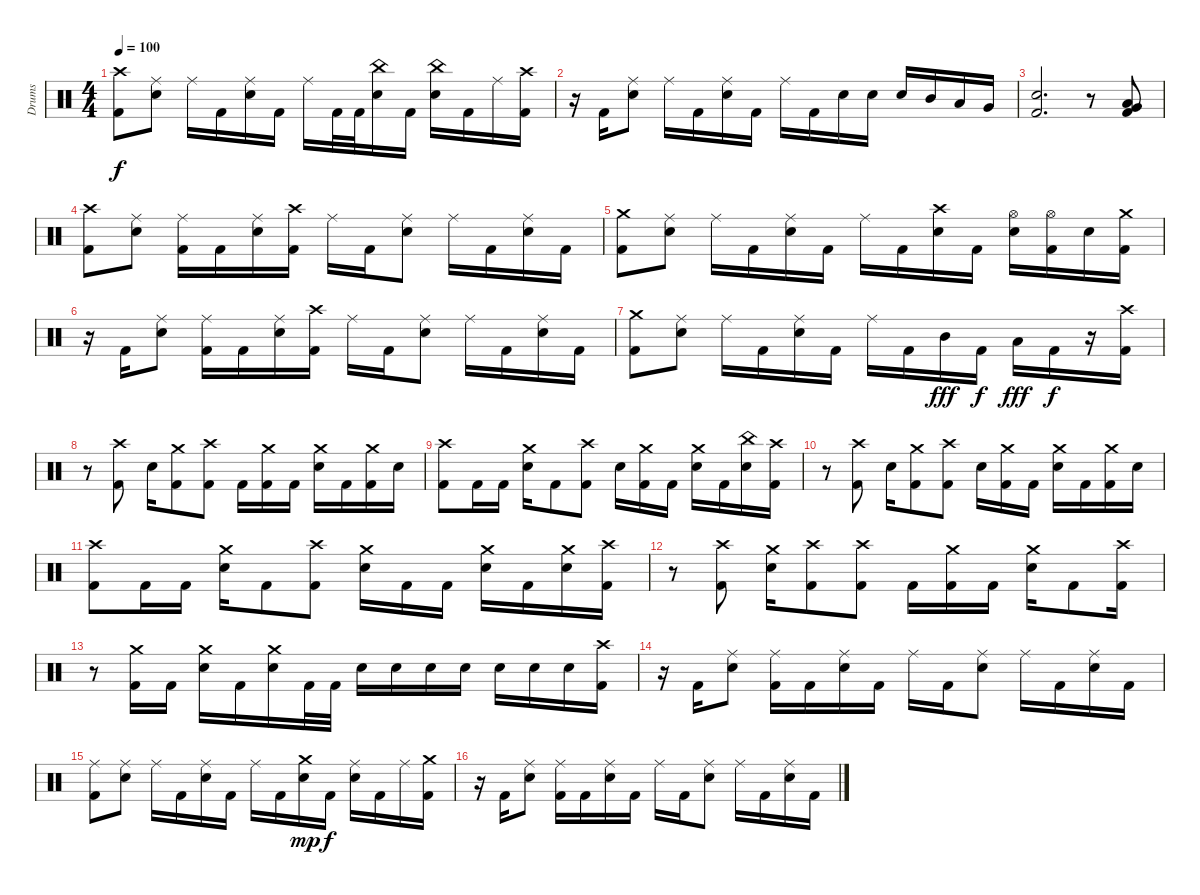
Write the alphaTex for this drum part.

\track ("Drums" "Drums") {instrument percussion}
\staff {score}
\articulation defaults
\ts (4 4)
\tempo 100
\clef neutral
\ks c
("Crash high (hit)" "Kick (hit) 2").8{dy f} ("Ride (middle)" "Electric Snare (hit)").8 "Ride (middle)".16 "Kick (hit) 2".16 ("Ride (middle)" "Electric Snare (hit)").16 "Kick (hit) 2".16 "Ride (middle)".16 "Kick (hit) 2".32 "Kick (hit) 2".32 ("China (hit)" "Electric Snare (hit)").16 "Kick (hit) 2".16 ("China (hit)" "Electric Snare (hit)").16 "Kick (hit) 2".16 "Ride (middle)".16 ("Crash high (hit)" "Kick (hit) 2").16 |
r.16 "Kick (hit) 2".16 ("Ride (middle)" "Electric Snare (hit)").8 "Ride (middle)".16 "Kick (hit) 2".16 ("Ride (middle)" "Electric Snare (hit)").16 "Kick (hit) 2".16 "Ride (middle)".16 "Kick (hit) 2".16 "Electric Snare (hit)".16 "Electric Snare (hit)".16 "Electric Snare (hit)".16 "Mid Tom (hit)".16 "Low Tom (hit)".16 "Very Low Tom (hit)".16 |
("Electric Snare (hit)" "Kick (hit) 2").2{d} r.8 ("Low Tom (hit)" "Very Low Tom (hit)" "Kick (hit) 2").8 |
("Crash high (hit)" "Kick (hit) 2").8 ("Ride (middle)" "Electric Snare (hit)").8 ("Ride (middle)" "Kick (hit) 2").16 "Kick (hit) 2".16 ("Ride (middle)" "Electric Snare (hit)").16 ("Crash high (hit)" "Kick (hit) 2").16 "Ride (middle)".16 "Kick (hit) 2".16 ("Ride (middle)" "Electric Snare (hit)").8 "Ride (middle)".16 "Kick (hit) 2".16 ("Ride (middle)" "Electric Snare (hit)").16 "Kick (hit) 2".16 |
("Crash medium (hit)" "Kick (hit) 2").8 ("Ride (middle)" "Electric Snare (hit)").8 "Ride (middle)".16 "Kick (hit) 2".16 ("Ride (middle)" "Electric Snare (hit)").16 "Kick (hit) 2".16 "Ride (middle)".16 "Kick (hit) 2".16 ("Crash high (hit)" "Electric Snare (hit)").16 "Kick (hit) 2".16 ("Hi-Hat (open)" "Electric Snare (hit)").16 ("Hi-Hat (open)" "Kick (hit) 2").16 "Electric Snare (hit)".16 ("Crash medium (hit)" "Kick (hit) 2").16 |
r.16 "Kick (hit) 2".16 ("Ride (middle)" "Electric Snare (hit)").8 ("Ride (middle)" "Kick (hit) 2").16 "Kick (hit) 2".16 ("Ride (middle)" "Electric Snare (hit)").16 ("Crash high (hit)" "Kick (hit) 2").16 "Ride (middle)".16 "Kick (hit) 2".16 ("Ride (middle)" "Electric Snare (hit)").8 "Ride (middle)".16 "Kick (hit) 2".16 ("Ride (middle)" "Electric Snare (hit)").16 "Kick (hit) 2".16 |
("Crash medium (hit)" "Kick (hit) 2").8 ("Ride (middle)" "Electric Snare (hit)").8 "Ride (middle)".16 "Kick (hit) 2".16 ("Ride (middle)" "Electric Snare (hit)").16 "Kick (hit) 2".16 "Ride (middle)".16 "Kick (hit) 2".16 "Mid Tom (hit)".16{dy fff} "Kick (hit) 2".16{dy f} "Low Tom (hit)".16{dy fff} "Kick (hit) 2".16{dy f} r.16 ("Crash high (hit)" "Kick (hit) 2").16 |
r.8 ("Crash high (hit)" "Kick (hit) 2").8 "Electric Snare (hit)".16 ("Crash medium (hit)" "Kick (hit) 2").8 ("Crash high (hit)" "Kick (hit) 2").8 "Kick (hit) 2".16 ("Crash medium (hit)" "Kick (hit) 2").16 "Kick (hit) 2".16 ("Crash medium (hit)" "Electric Snare (hit)").16 "Kick (hit) 2".16 ("Crash medium (hit)" "Kick (hit) 2").16 "Electric Snare (hit)".16 |
("Crash high (hit)" "Kick (hit) 2").8 "Kick (hit) 2".16 "Kick (hit) 2".16 ("Crash medium (hit)" "Electric Snare (hit)").16 "Kick (hit) 2".8 ("Crash high (hit)" "Kick (hit) 2").8 "Electric Snare (hit)".16 ("Crash medium (hit)" "Kick (hit) 2").16 "Kick (hit) 2".16 ("Crash medium (hit)" "Electric Snare (hit)").16 "Kick (hit) 2".16 ("China (hit)" "Electric Snare (hit)").16 ("Crash high (hit)" "Kick (hit) 2").16 |
r.8 ("Crash high (hit)" "Kick (hit) 2").8 "Electric Snare (hit)".16 ("Crash medium (hit)" "Kick (hit) 2").8 ("Crash high (hit)" "Kick (hit) 2").8 "Electric Snare (hit)".16 ("Crash medium (hit)" "Kick (hit) 2").16 "Kick (hit) 2".16 ("Crash medium (hit)" "Electric Snare (hit)").16 "Kick (hit) 2".16 ("Crash medium (hit)" "Kick (hit) 2").16 "Electric Snare (hit)".16 |
("Crash high (hit)" "Kick (hit) 2").8 "Kick (hit) 2".16 "Kick (hit) 2".16 ("Crash medium (hit)" "Electric Snare (hit)").16 "Kick (hit) 2".8 ("Crash high (hit)" "Kick (hit) 2").8 ("Crash medium (hit)" "Electric Snare (hit)").16 "Kick (hit) 2".16 "Kick (hit) 2".16 ("Crash medium (hit)" "Electric Snare (hit)").16 "Kick (hit) 2".16 ("Crash medium (hit)" "Electric Snare (hit)").16 ("Crash high (hit)" "Kick (hit) 2").16 |
r.8 ("Crash high (hit)" "Kick (hit) 2").8 ("Crash medium (hit)" "Electric Snare (hit)").16 ("Crash high (hit)" "Kick (hit) 2").8 ("Crash high (hit)" "Kick (hit) 2").8 "Kick (hit) 2".16 ("Crash medium (hit)" "Kick (hit) 2").16 "Kick (hit) 2".16 ("Crash medium (hit)" "Electric Snare (hit)").16 "Kick (hit) 2".8 ("Crash high (hit)" "Kick (hit) 2").16 |
r.8 ("Crash medium (hit)" "Kick (hit) 2").16 "Kick (hit) 2".16 ("Crash medium (hit)" "Electric Snare (hit)").16 "Kick (hit) 2".16 ("Crash medium (hit)" "Electric Snare (hit)").16 "Kick (hit) 2".32 "Kick (hit) 2".32 "Electric Snare (hit)".16 "Electric Snare (hit)".16 "Electric Snare (hit)".16 "Electric Snare (hit)".16 "Electric Snare (hit)".16 "Electric Snare (hit)".16 "Electric Snare (hit)".16 ("Crash high (hit)" "Kick (hit) 2").16 |
r.16 "Kick (hit) 2".16 ("Ride (middle)" "Electric Snare (hit)").8 ("Ride (middle)" "Kick (hit) 2").16 "Kick (hit) 2".16 ("Ride (middle)" "Electric Snare (hit)").16 "Kick (hit) 2".16 "Ride (middle)".16 "Kick (hit) 2".16 ("Ride (middle)" "Electric Snare (hit)").8 "Ride (middle)".16 "Kick (hit) 2".16 ("Ride (middle)" "Electric Snare (hit)").16 "Kick (hit) 2".16 |
("Ride (middle)" "Kick (hit) 2").8 ("Ride (middle)" "Electric Snare (hit)").8 "Ride (middle)".16 "Kick (hit) 2".16 ("Ride (middle)" "Electric Snare (hit)").16 "Kick (hit) 2".16 "Ride (middle)".16 "Kick (hit) 2".16 ("Crash medium (hit)" "Electric Snare (hit)").16{dy mp} "Kick (hit) 2".16{dy f} ("Ride (middle)" "Electric Snare (hit)").16 "Kick (hit) 2".16 "Ride (middle)".16 ("Crash medium (hit)" "Kick (hit) 2").16 |
r.16 "Kick (hit) 2".16 ("Ride (middle)" "Electric Snare (hit)").8 ("Ride (middle)" "Kick (hit) 2").16 "Kick (hit) 2".16 ("Ride (middle)" "Electric Snare (hit)").16 "Kick (hit) 2".16 "Ride (middle)".16 "Kick (hit) 2".16 ("Ride (middle)" "Electric Snare (hit)").8 "Ride (middle)".16 "Kick (hit) 2".16 ("Ride (middle)" "Electric Snare (hit)").16 "Kick (hit) 2".16
